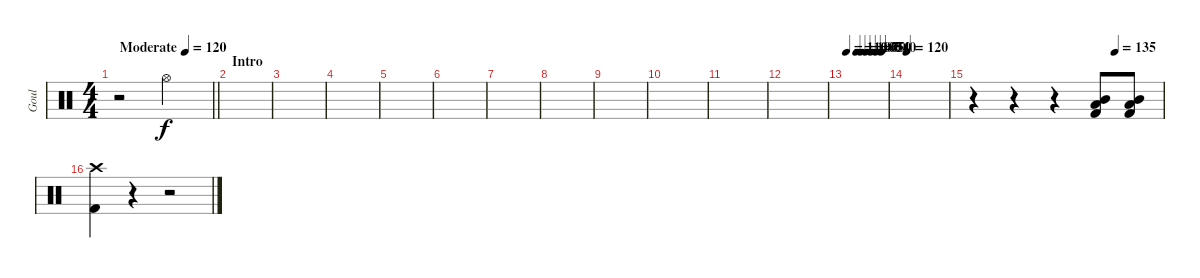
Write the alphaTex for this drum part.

\track ("Goul" "Goul") {instrument percussion}
\staff {score}
\articulation defaults
\ts (4 4)
\tempo (120 "Moderate")
\clef neutral
\barLineRight lightlight
\ks c
r.2{dy f} "Hi-Hat (open)".2 |
\section ("" "Intro")
|
|
|
|
|
|
|
|
|
|
|
\tempo 110
\tempo (100 0.25)
\tempo (90 0.375)
\tempo (80 0.5)
\tempo (70 0.625)
\tempo (50 0.75)
\tempo (30 0.875)
\tempo (105 0.375)
\tempo (40 0.875)
|
\tempo 120
|
\tempo (135 0.75)
r.4 r.4 r.4 ("Mid Tom (hit)" "Low Tom (hit)" "Kick (hit) 2").8 ("Mid Tom (hit)" "Low Tom (hit)" "Kick (hit) 2").8 |
("Crash high (hit)" "Kick (hit) 2").4 r.4 r.2
